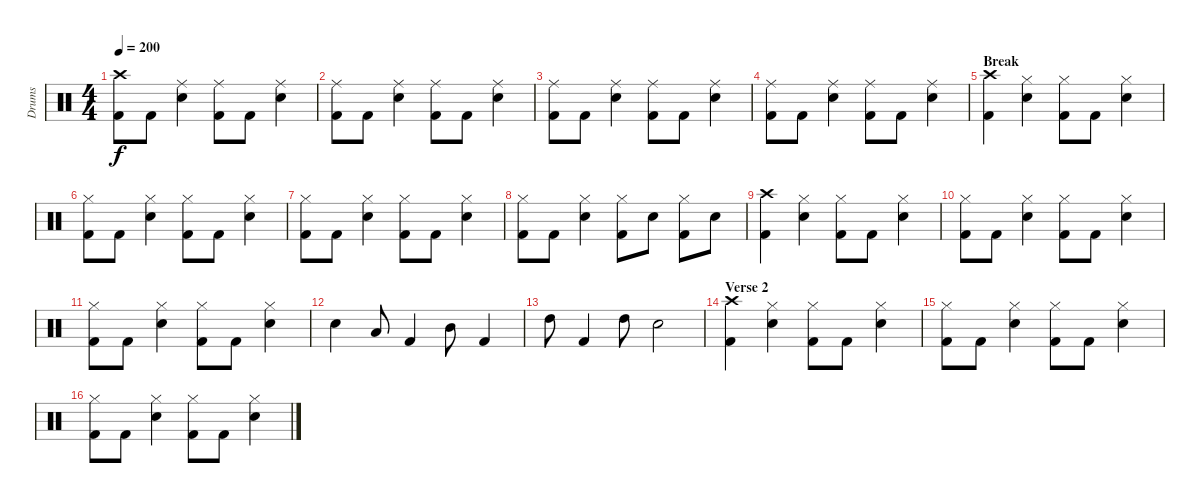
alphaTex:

\track ("Drums" "Drums") {instrument percussion}
\staff {score}
\articulation defaults
\ts (4 4)
\tempo 200
\clef neutral
\ks c
("Crash high (hit)" "Kick (hit) 2").8{dy f} "Kick (hit) 2".8 ("Ride (middle)" "Electric Snare (hit)").4 ("Ride (middle)" "Kick (hit) 2").8 "Kick (hit) 2".8 ("Ride (middle)" "Electric Snare (hit)").4 |
("Ride (middle)" "Kick (hit) 2").8 "Kick (hit) 2".8 ("Ride (middle)" "Electric Snare (hit)").4 ("Ride (middle)" "Kick (hit) 2").8 "Kick (hit) 2".8 ("Ride (middle)" "Electric Snare (hit)").4 |
("Ride (middle)" "Kick (hit) 2").8 "Kick (hit) 2".8 ("Ride (middle)" "Electric Snare (hit)").4 ("Ride (middle)" "Kick (hit) 2").8 "Kick (hit) 2".8 ("Ride (middle)" "Electric Snare (hit)").4 |
("Ride (middle)" "Kick (hit) 2").8 "Kick (hit) 2".8 ("Ride (middle)" "Electric Snare (hit)").4 ("Ride (middle)" "Kick (hit) 2").8 "Kick (hit) 2".8 ("Ride (middle)" "Electric Snare (hit)").4 |
\section ("" "Break")
("Crash high (hit)" "Kick (hit) 2").4 ("Hi-Hat (closed)" "Electric Snare (hit)").4 ("Hi-Hat (closed)" "Kick (hit) 2").8 "Kick (hit) 2".8 ("Hi-Hat (closed)" "Electric Snare (hit)").4 |
("Hi-Hat (closed)" "Kick (hit) 2").8 "Kick (hit) 2".8 ("Hi-Hat (closed)" "Electric Snare (hit)").4 ("Hi-Hat (closed)" "Kick (hit) 2").8 "Kick (hit) 2".8 ("Hi-Hat (closed)" "Electric Snare (hit)").4 |
("Hi-Hat (closed)" "Kick (hit) 2").8 "Kick (hit) 2".8 ("Hi-Hat (closed)" "Electric Snare (hit)").4 ("Hi-Hat (closed)" "Kick (hit) 2").8 "Kick (hit) 2".8 ("Hi-Hat (closed)" "Electric Snare (hit)").4 |
("Hi-Hat (closed)" "Kick (hit) 2").8 "Kick (hit) 2".8 ("Hi-Hat (closed)" "Electric Snare (hit)").4 ("Hi-Hat (closed)" "Kick (hit) 2").8 "Electric Snare (hit)".8 ("Hi-Hat (closed)" "Kick (hit) 2").8 "Electric Snare (hit)".8 |
("Crash high (hit)" "Kick (hit) 2").4 ("Hi-Hat (closed)" "Electric Snare (hit)").4 ("Hi-Hat (closed)" "Kick (hit) 2").8 "Kick (hit) 2".8 ("Hi-Hat (closed)" "Electric Snare (hit)").4 |
("Hi-Hat (closed)" "Kick (hit) 2").8 "Kick (hit) 2".8 ("Hi-Hat (closed)" "Electric Snare (hit)").4 ("Hi-Hat (closed)" "Kick (hit) 2").8 "Kick (hit) 2".8 ("Hi-Hat (closed)" "Electric Snare (hit)").4 |
("Hi-Hat (closed)" "Kick (hit) 2").8 "Kick (hit) 2".8 ("Hi-Hat (closed)" "Electric Snare (hit)").4 ("Hi-Hat (closed)" "Kick (hit) 2").8 "Kick (hit) 2".8 ("Hi-Hat (closed)" "Electric Snare (hit)").4 |
"Electric Snare (hit)".4 "Low Tom (hit)".8 "Kick (hit) 2".4 "Mid Tom (hit)".8 "Kick (hit) 2".4 |
"High Tom (hit)".8 "Kick (hit) 2".4 "High Tom (hit)".8 "Electric Snare (hit)".2 |
\section ("" "Verse 2")
("Crash high (hit)" "Kick (hit) 2").4 ("Hi-Hat (closed)" "Electric Snare (hit)").4 ("Hi-Hat (closed)" "Kick (hit) 2").8 "Kick (hit) 2".8 ("Hi-Hat (closed)" "Electric Snare (hit)").4 |
("Hi-Hat (closed)" "Kick (hit) 2").8 "Kick (hit) 2".8 ("Hi-Hat (closed)" "Electric Snare (hit)").4 ("Hi-Hat (closed)" "Kick (hit) 2").8 "Kick (hit) 2".8 ("Hi-Hat (closed)" "Electric Snare (hit)").4 |
("Hi-Hat (closed)" "Kick (hit) 2").8 "Kick (hit) 2".8 ("Hi-Hat (closed)" "Electric Snare (hit)").4 ("Hi-Hat (closed)" "Kick (hit) 2").8 "Kick (hit) 2".8 ("Hi-Hat (closed)" "Electric Snare (hit)").4
